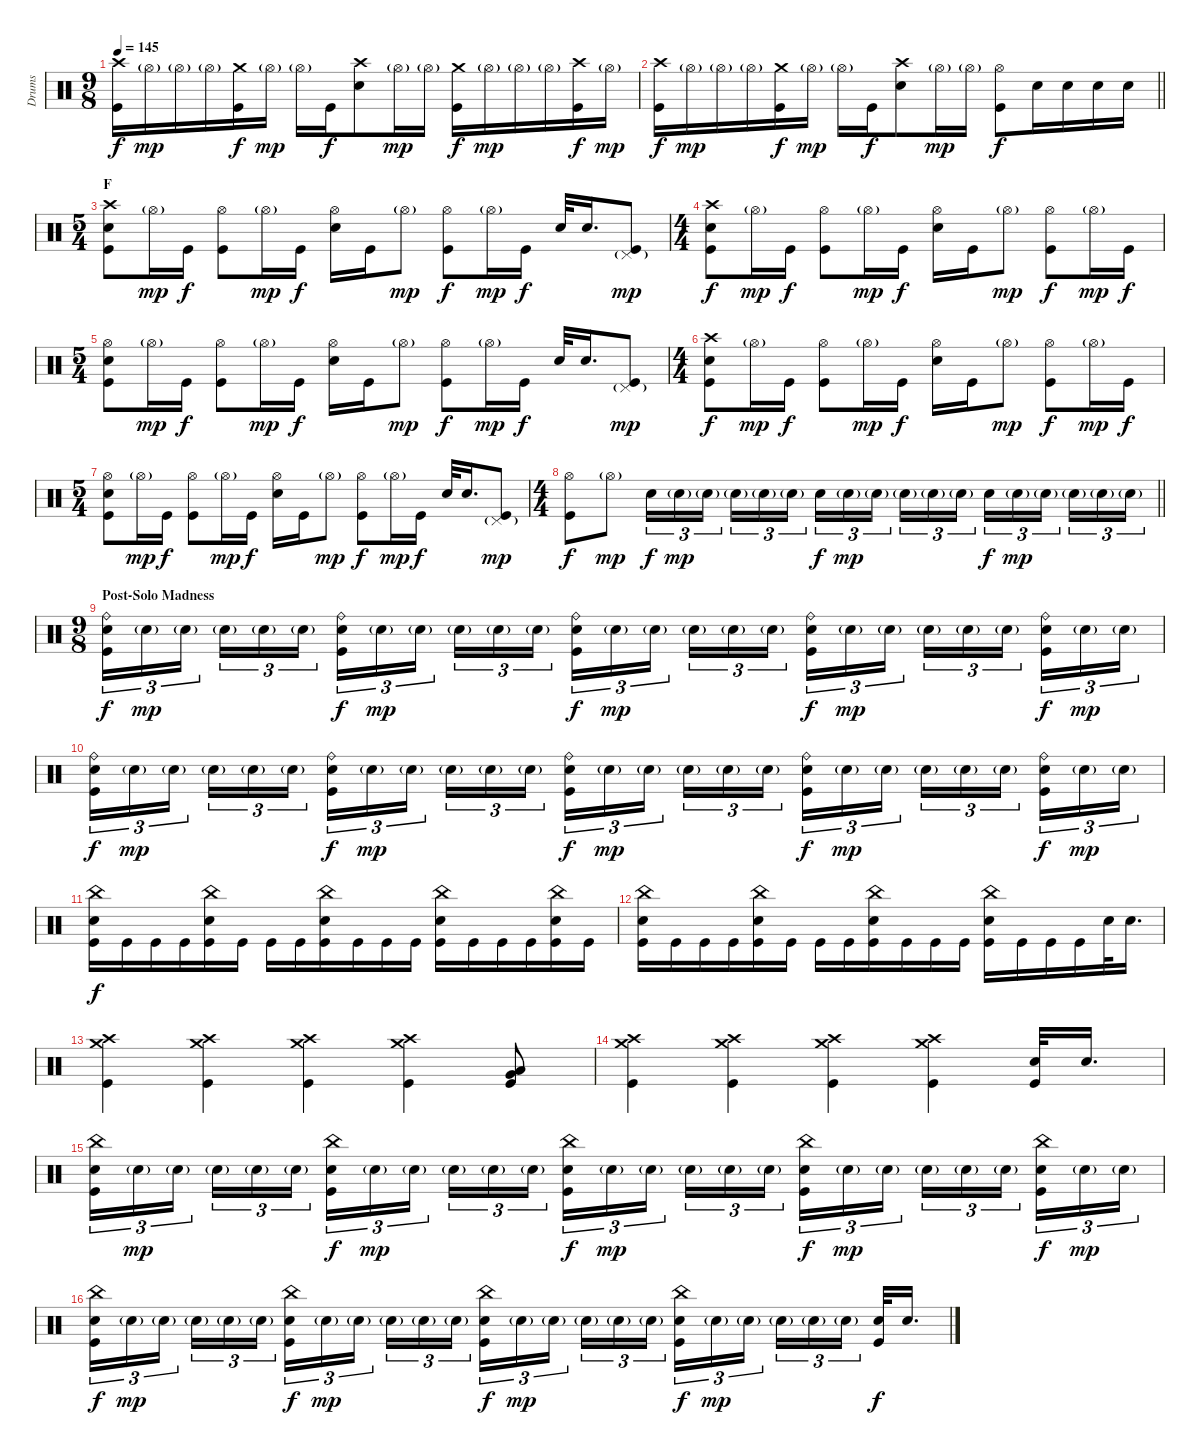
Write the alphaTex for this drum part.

\track ("Drums" "Drums") {instrument percussion}
\staff {score}
\articulation defaults
\ts (9 8)
\tempo 145
\clef neutral
\ks c
("Crash high (hit)" "Kick (hit)").16{dy f} "Hi-Hat (open)"{g}.16{dy mp} "Hi-Hat (open)"{g}.16 "Hi-Hat (open)"{g}.16 ("Crash medium (hit)" "Kick (hit)").16{dy f} "Hi-Hat (open)"{g}.16{dy mp} "Hi-Hat (open)"{g}.16 "Kick (hit)".16{dy f} ("Crash high (hit)" "Electric Snare (hit)").8 "Hi-Hat (open)"{g}.16{dy mp} "Hi-Hat (open)"{g}.16 ("Crash medium (hit)" "Kick (hit)").16{dy f} "Hi-Hat (open)"{g}.16{dy mp} "Hi-Hat (open)"{g}.16 "Hi-Hat (open)"{g}.16 ("Crash high (hit)" "Kick (hit)").16{dy f} "Hi-Hat (open)"{g}.16{dy mp} |
\barLineRight lightlight
("Crash high (hit)" "Kick (hit)").16{dy f} "Hi-Hat (open)"{g}.16{dy mp} "Hi-Hat (open)"{g}.16 "Hi-Hat (open)"{g}.16 ("Crash medium (hit)" "Kick (hit)").16{dy f} "Hi-Hat (open)"{g}.16{dy mp} "Hi-Hat (open)"{g}.16 "Kick (hit)".16{dy f} ("Crash high (hit)" "Electric Snare (hit)").8 "Hi-Hat (open)"{g}.16{dy mp} "Hi-Hat (open)"{g}.16 ("Hi-Hat (open)" "Kick (hit)").8{dy f} "Electric Snare (hit)".16 "Electric Snare (hit)".16 "Electric Snare (hit)".16 "Electric Snare (hit)".16 |
\ts (5 4)
\section ("" "F")
("Crash high (hit)" "Electric Snare (hit)" "Kick (hit)").8 "Hi-Hat (open)"{g}.16{dy mp} "Kick (hit)".16{dy f} ("Hi-Hat (open)" "Kick (hit)").8 "Hi-Hat (open)"{g}.16{dy mp} "Kick (hit)".16{dy f} ("Hi-Hat (open)" "Electric Snare (hit)").16 "Kick (hit)".16 "Hi-Hat (open)"{g}.8{dy mp} ("Hi-Hat (open)" "Kick (hit)").8{dy f} "Hi-Hat (open)"{g}.16{dy mp} "Kick (hit)".16{dy f} "Electric Snare (hit)".32 "Electric Snare (hit)".16{d} ("Pedal Hi-Hat (hit)"{g} "Kick (hit)").8{dy mp} |
\ts (4 4)
("Crash high (hit)" "Electric Snare (hit)" "Kick (hit)").8{dy f} "Hi-Hat (open)"{g}.16{dy mp} "Kick (hit)".16{dy f} ("Hi-Hat (open)" "Kick (hit)").8 "Hi-Hat (open)"{g}.16{dy mp} "Kick (hit)".16{dy f} ("Hi-Hat (open)" "Electric Snare (hit)").16 "Kick (hit)".16 "Hi-Hat (open)"{g}.8{dy mp} ("Hi-Hat (open)" "Kick (hit)").8{dy f} "Hi-Hat (open)"{g}.16{dy mp} "Kick (hit)".16{dy f} |
\ts (5 4)
("Hi-Hat (open)" "Electric Snare (hit)" "Kick (hit)").8 "Hi-Hat (open)"{g}.16{dy mp} "Kick (hit)".16{dy f} ("Hi-Hat (open)" "Kick (hit)").8 "Hi-Hat (open)"{g}.16{dy mp} "Kick (hit)".16{dy f} ("Hi-Hat (open)" "Electric Snare (hit)").16 "Kick (hit)".16 "Hi-Hat (open)"{g}.8{dy mp} ("Hi-Hat (open)" "Kick (hit)").8{dy f} "Hi-Hat (open)"{g}.16{dy mp} "Kick (hit)".16{dy f} "Electric Snare (hit)".32 "Electric Snare (hit)".16{d} ("Pedal Hi-Hat (hit)"{g} "Kick (hit)").8{dy mp} |
\ts (4 4)
("Crash high (hit)" "Electric Snare (hit)" "Kick (hit)").8{dy f} "Hi-Hat (open)"{g}.16{dy mp} "Kick (hit)".16{dy f} ("Hi-Hat (open)" "Kick (hit)").8 "Hi-Hat (open)"{g}.16{dy mp} "Kick (hit)".16{dy f} ("Hi-Hat (open)" "Electric Snare (hit)").16 "Kick (hit)".16 "Hi-Hat (open)"{g}.8{dy mp} ("Hi-Hat (open)" "Kick (hit)").8{dy f} "Hi-Hat (open)"{g}.16{dy mp} "Kick (hit)".16{dy f} |
\ts (5 4)
("Hi-Hat (open)" "Electric Snare (hit)" "Kick (hit)").8 "Hi-Hat (open)"{g}.16{dy mp} "Kick (hit)".16{dy f} ("Hi-Hat (open)" "Kick (hit)").8 "Hi-Hat (open)"{g}.16{dy mp} "Kick (hit)".16{dy f} ("Hi-Hat (open)" "Electric Snare (hit)").16 "Kick (hit)".16 "Hi-Hat (open)"{g}.8{dy mp} ("Hi-Hat (open)" "Kick (hit)").8{dy f} "Hi-Hat (open)"{g}.16{dy mp} "Kick (hit)".16{dy f} "Electric Snare (hit)".32 "Electric Snare (hit)".16{d} ("Pedal Hi-Hat (hit)"{g} "Kick (hit)").8{dy mp} |
\ts (4 4)
\barLineRight lightlight
("Hi-Hat (open)" "Kick (hit)").8{dy f} "Hi-Hat (open)"{g}.8{dy mp} "Electric Snare (hit)".16{tu (3 2) dy f} "Electric Snare (hit)"{g}.16{tu (3 2) dy mp} "Electric Snare (hit)"{g}.16{tu (3 2)} "Electric Snare (hit)"{g}.16{tu (3 2)} "Electric Snare (hit)"{g}.16{tu (3 2)} "Electric Snare (hit)"{g}.16{tu (3 2)} "Electric Snare (hit)".16{tu (3 2) dy f} "Electric Snare (hit)"{g}.16{tu (3 2) dy mp} "Electric Snare (hit)"{g}.16{tu (3 2)} "Electric Snare (hit)"{g}.16{tu (3 2)} "Electric Snare (hit)"{g}.16{tu (3 2)} "Electric Snare (hit)"{g}.16{tu (3 2)} "Electric Snare (hit)".16{tu (3 2) dy f} "Electric Snare (hit)"{g}.16{tu (3 2) dy mp} "Electric Snare (hit)"{g}.16{tu (3 2)} "Electric Snare (hit)"{g}.16{tu (3 2)} "Electric Snare (hit)"{g}.16{tu (3 2)} "Electric Snare (hit)"{g}.16{tu (3 2)} |
\ts (9 8)
\section ("" "Post-Solo Madness")
("Ride (bell)" "Electric Snare (hit)" "Kick (hit)").16{tu (3 2) dy f} "Electric Snare (hit)"{g}.16{tu (3 2) dy mp} "Electric Snare (hit)"{g}.16{tu (3 2)} "Electric Snare (hit)"{g}.16{tu (3 2)} "Electric Snare (hit)"{g}.16{tu (3 2)} "Electric Snare (hit)"{g}.16{tu (3 2)} ("Ride (bell)" "Electric Snare (hit)" "Kick (hit)").16{tu (3 2) dy f} "Electric Snare (hit)"{g}.16{tu (3 2) dy mp} "Electric Snare (hit)"{g}.16{tu (3 2)} "Electric Snare (hit)"{g}.16{tu (3 2)} "Electric Snare (hit)"{g}.16{tu (3 2)} "Electric Snare (hit)"{g}.16{tu (3 2)} ("Ride (bell)" "Electric Snare (hit)" "Kick (hit)").16{tu (3 2) dy f} "Electric Snare (hit)"{g}.16{tu (3 2) dy mp} "Electric Snare (hit)"{g}.16{tu (3 2)} "Electric Snare (hit)"{g}.16{tu (3 2)} "Electric Snare (hit)"{g}.16{tu (3 2)} "Electric Snare (hit)"{g}.16{tu (3 2)} ("Ride (bell)" "Electric Snare (hit)" "Kick (hit)").16{tu (3 2) dy f} "Electric Snare (hit)"{g}.16{tu (3 2) dy mp} "Electric Snare (hit)"{g}.16{tu (3 2)} "Electric Snare (hit)"{g}.16{tu (3 2)} "Electric Snare (hit)"{g}.16{tu (3 2)} "Electric Snare (hit)"{g}.16{tu (3 2)} ("Ride (bell)" "Electric Snare (hit)" "Kick (hit)").16{tu (3 2) dy f} "Electric Snare (hit)"{g}.16{tu (3 2) dy mp} "Electric Snare (hit)"{g}.16{tu (3 2)} |
("Ride (bell)" "Electric Snare (hit)" "Kick (hit)").16{tu (3 2) dy f} "Electric Snare (hit)"{g}.16{tu (3 2) dy mp} "Electric Snare (hit)"{g}.16{tu (3 2)} "Electric Snare (hit)"{g}.16{tu (3 2)} "Electric Snare (hit)"{g}.16{tu (3 2)} "Electric Snare (hit)"{g}.16{tu (3 2)} ("Ride (bell)" "Electric Snare (hit)" "Kick (hit)").16{tu (3 2) dy f} "Electric Snare (hit)"{g}.16{tu (3 2) dy mp} "Electric Snare (hit)"{g}.16{tu (3 2)} "Electric Snare (hit)"{g}.16{tu (3 2)} "Electric Snare (hit)"{g}.16{tu (3 2)} "Electric Snare (hit)"{g}.16{tu (3 2)} ("Ride (bell)" "Electric Snare (hit)" "Kick (hit)").16{tu (3 2) dy f} "Electric Snare (hit)"{g}.16{tu (3 2) dy mp} "Electric Snare (hit)"{g}.16{tu (3 2)} "Electric Snare (hit)"{g}.16{tu (3 2)} "Electric Snare (hit)"{g}.16{tu (3 2)} "Electric Snare (hit)"{g}.16{tu (3 2)} ("Ride (bell)" "Electric Snare (hit)" "Kick (hit)").16{tu (3 2) dy f} "Electric Snare (hit)"{g}.16{tu (3 2) dy mp} "Electric Snare (hit)"{g}.16{tu (3 2)} "Electric Snare (hit)"{g}.16{tu (3 2)} "Electric Snare (hit)"{g}.16{tu (3 2)} "Electric Snare (hit)"{g}.16{tu (3 2)} ("Ride (bell)" "Electric Snare (hit)" "Kick (hit)").16{tu (3 2) dy f} "Electric Snare (hit)"{g}.16{tu (3 2) dy mp} "Electric Snare (hit)"{g}.16{tu (3 2)} |
("China (hit)" "Electric Snare (hit)" "Kick (hit)").16{dy f} "Kick (hit)".16 "Kick (hit)".16 "Kick (hit)".16 ("China (hit)" "Electric Snare (hit)" "Kick (hit)").16 "Kick (hit)".16 "Kick (hit)".16 "Kick (hit)".16 ("China (hit)" "Electric Snare (hit)" "Kick (hit)").16 "Kick (hit)".16 "Kick (hit)".16 "Kick (hit)".16 ("China (hit)" "Electric Snare (hit)" "Kick (hit)").16 "Kick (hit)".16 "Kick (hit)".16 "Kick (hit)".16 ("China (hit)" "Electric Snare (hit)" "Kick (hit)").16 "Kick (hit)".16 |
("China (hit)" "Electric Snare (hit)" "Kick (hit)").16 "Kick (hit)".16 "Kick (hit)".16 "Kick (hit)".16 ("China (hit)" "Electric Snare (hit)" "Kick (hit)").16 "Kick (hit)".16 "Kick (hit)".16 "Kick (hit)".16 ("China (hit)" "Electric Snare (hit)" "Kick (hit)").16 "Kick (hit)".16 "Kick (hit)".16 "Kick (hit)".16 ("China (hit)" "Electric Snare (hit)" "Kick (hit)").16 "Kick (hit)".16 "Kick (hit)".16 "Kick (hit)".16 "Electric Snare (hit)".32 "Electric Snare (hit)".16{d} |
("Crash medium (hit)" "Crash high (hit)" "Kick (hit)").4 ("Crash medium (hit)" "Crash high (hit)" "Kick (hit)").4 ("Crash medium (hit)" "Crash high (hit)" "Kick (hit)").4 ("Crash medium (hit)" "Crash high (hit)" "Kick (hit)").4 ("Low Tom (hit)" "Very Low Tom (hit)" "Kick (hit)").8 |
("Crash medium (hit)" "Crash high (hit)" "Kick (hit)").4 ("Crash medium (hit)" "Crash high (hit)" "Kick (hit)").4 ("Crash medium (hit)" "Crash high (hit)" "Kick (hit)").4 ("Crash medium (hit)" "Crash high (hit)" "Kick (hit)").4 ("Electric Snare (hit)" "Kick (hit)").32 "Electric Snare (hit)".16{d} |
("China (hit)" "Electric Snare (hit)" "Kick (hit)").16{tu (3 2)} "Electric Snare (hit)"{g}.16{tu (3 2) dy mp} "Electric Snare (hit)"{g}.16{tu (3 2)} "Electric Snare (hit)"{g}.16{tu (3 2)} "Electric Snare (hit)"{g}.16{tu (3 2)} "Electric Snare (hit)"{g}.16{tu (3 2)} ("China (hit)" "Electric Snare (hit)" "Kick (hit)").16{tu (3 2) dy f} "Electric Snare (hit)"{g}.16{tu (3 2) dy mp} "Electric Snare (hit)"{g}.16{tu (3 2)} "Electric Snare (hit)"{g}.16{tu (3 2)} "Electric Snare (hit)"{g}.16{tu (3 2)} "Electric Snare (hit)"{g}.16{tu (3 2)} ("China (hit)" "Electric Snare (hit)" "Kick (hit)").16{tu (3 2) dy f} "Electric Snare (hit)"{g}.16{tu (3 2) dy mp} "Electric Snare (hit)"{g}.16{tu (3 2)} "Electric Snare (hit)"{g}.16{tu (3 2)} "Electric Snare (hit)"{g}.16{tu (3 2)} "Electric Snare (hit)"{g}.16{tu (3 2)} ("China (hit)" "Electric Snare (hit)" "Kick (hit)").16{tu (3 2) dy f} "Electric Snare (hit)"{g}.16{tu (3 2) dy mp} "Electric Snare (hit)"{g}.16{tu (3 2)} "Electric Snare (hit)"{g}.16{tu (3 2)} "Electric Snare (hit)"{g}.16{tu (3 2)} "Electric Snare (hit)"{g}.16{tu (3 2)} ("China (hit)" "Electric Snare (hit)" "Kick (hit)").16{tu (3 2) dy f} "Electric Snare (hit)"{g}.16{tu (3 2) dy mp} "Electric Snare (hit)"{g}.16{tu (3 2)} |
("China (hit)" "Electric Snare (hit)" "Kick (hit)").16{tu (3 2) dy f} "Electric Snare (hit)"{g}.16{tu (3 2) dy mp} "Electric Snare (hit)"{g}.16{tu (3 2)} "Electric Snare (hit)"{g}.16{tu (3 2)} "Electric Snare (hit)"{g}.16{tu (3 2)} "Electric Snare (hit)"{g}.16{tu (3 2)} ("China (hit)" "Electric Snare (hit)" "Kick (hit)").16{tu (3 2) dy f} "Electric Snare (hit)"{g}.16{tu (3 2) dy mp} "Electric Snare (hit)"{g}.16{tu (3 2)} "Electric Snare (hit)"{g}.16{tu (3 2)} "Electric Snare (hit)"{g}.16{tu (3 2)} "Electric Snare (hit)"{g}.16{tu (3 2)} ("China (hit)" "Electric Snare (hit)" "Kick (hit)").16{tu (3 2) dy f} "Electric Snare (hit)"{g}.16{tu (3 2) dy mp} "Electric Snare (hit)"{g}.16{tu (3 2)} "Electric Snare (hit)"{g}.16{tu (3 2)} "Electric Snare (hit)"{g}.16{tu (3 2)} "Electric Snare (hit)"{g}.16{tu (3 2)} ("China (hit)" "Electric Snare (hit)" "Kick (hit)").16{tu (3 2) dy f} "Electric Snare (hit)"{g}.16{tu (3 2) dy mp} "Electric Snare (hit)"{g}.16{tu (3 2)} "Electric Snare (hit)"{g}.16{tu (3 2)} "Electric Snare (hit)"{g}.16{tu (3 2)} "Electric Snare (hit)"{g}.16{tu (3 2)} ("Electric Snare (hit)" "Kick (hit)").32{dy f} "Electric Snare (hit)".16{d}
